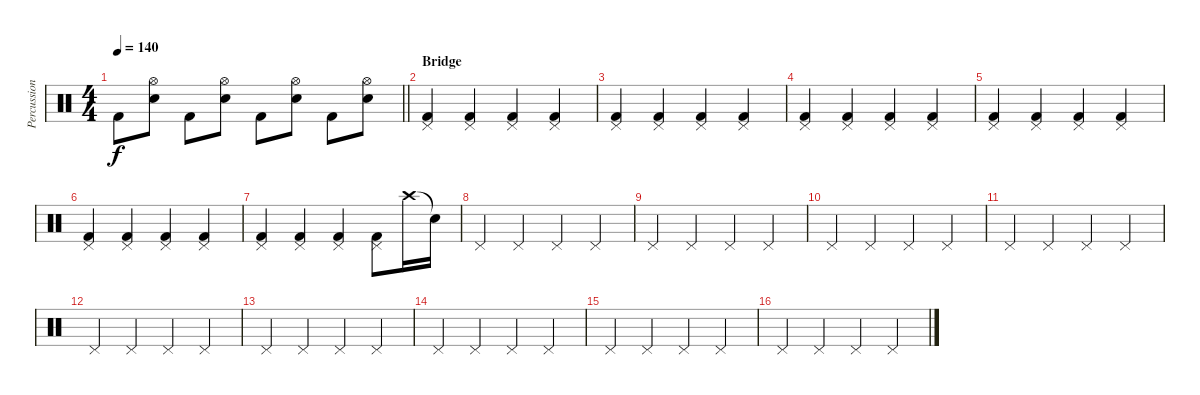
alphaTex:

\track ("Percussion" "Percussion") {instrument percussion}
\staff {score}
\articulation defaults
\ts (4 4)
\tempo 140
\clef neutral
\barLineRight lightlight
\ks c "Kick (hit) 2".8{dy f}
("Hi-Hat (open)" "Hand Clap (hit)").8 "Kick (hit) 2".8 ("Hi-Hat (open)" "Hand Clap (hit)").8 "Kick (hit) 2".8 ("Hi-Hat (open)" "Hand Clap (hit)").8 "Kick (hit) 2".8 ("Hi-Hat (open)" "Hand Clap (hit)").8 |
\section ("" "Bridge")
("Pedal Hi-Hat (hit)" "Kick (hit) 2").4 ("Pedal Hi-Hat (hit)" "Kick (hit) 2").4 ("Pedal Hi-Hat (hit)" "Kick (hit) 2").4 ("Pedal Hi-Hat (hit)" "Kick (hit) 2").4 |
("Pedal Hi-Hat (hit)" "Kick (hit) 2").4 ("Pedal Hi-Hat (hit)" "Kick (hit) 2").4 ("Pedal Hi-Hat (hit)" "Kick (hit) 2").4 ("Pedal Hi-Hat (hit)" "Kick (hit) 2").4 |
("Pedal Hi-Hat (hit)" "Kick (hit) 2").4 ("Pedal Hi-Hat (hit)" "Kick (hit) 2").4 ("Pedal Hi-Hat (hit)" "Kick (hit) 2").4 ("Pedal Hi-Hat (hit)" "Kick (hit) 2").4 |
("Pedal Hi-Hat (hit)" "Kick (hit) 2").4 ("Pedal Hi-Hat (hit)" "Kick (hit) 2").4 ("Pedal Hi-Hat (hit)" "Kick (hit) 2").4 ("Pedal Hi-Hat (hit)" "Kick (hit) 2").4 |
("Pedal Hi-Hat (hit)" "Kick (hit) 2").4 ("Pedal Hi-Hat (hit)" "Kick (hit) 2").4 ("Pedal Hi-Hat (hit)" "Kick (hit) 2").4 ("Pedal Hi-Hat (hit)" "Kick (hit) 2").4 |
("Pedal Hi-Hat (hit)" "Kick (hit) 2").4 ("Pedal Hi-Hat (hit)" "Kick (hit) 2").4 ("Pedal Hi-Hat (hit)" "Kick (hit) 2").4 ("Pedal Hi-Hat (hit)" "Kick (hit) 2").8 "Crash high (hit)".16{volume 0} "Snare (hit)"{t}.16{volume 16} |
"Pedal Hi-Hat (hit)".4 "Pedal Hi-Hat (hit)".4 "Pedal Hi-Hat (hit)".4 "Pedal Hi-Hat (hit)".4 |
"Pedal Hi-Hat (hit)".4 "Pedal Hi-Hat (hit)".4 "Pedal Hi-Hat (hit)".4 "Pedal Hi-Hat (hit)".4 |
"Pedal Hi-Hat (hit)".4 "Pedal Hi-Hat (hit)".4 "Pedal Hi-Hat (hit)".4 "Pedal Hi-Hat (hit)".4 |
"Pedal Hi-Hat (hit)".4 "Pedal Hi-Hat (hit)".4 "Pedal Hi-Hat (hit)".4 "Pedal Hi-Hat (hit)".4 |
"Pedal Hi-Hat (hit)".4 "Pedal Hi-Hat (hit)".4 "Pedal Hi-Hat (hit)".4 "Pedal Hi-Hat (hit)".4 |
"Pedal Hi-Hat (hit)".4 "Pedal Hi-Hat (hit)".4 "Pedal Hi-Hat (hit)".4 "Pedal Hi-Hat (hit)".4 |
"Pedal Hi-Hat (hit)".4 "Pedal Hi-Hat (hit)".4 "Pedal Hi-Hat (hit)".4 "Pedal Hi-Hat (hit)".4 |
"Pedal Hi-Hat (hit)".4 "Pedal Hi-Hat (hit)".4 "Pedal Hi-Hat (hit)".4 "Pedal Hi-Hat (hit)".4 |
"Pedal Hi-Hat (hit)".4 "Pedal Hi-Hat (hit)".4 "Pedal Hi-Hat (hit)".4 "Pedal Hi-Hat (hit)".4
